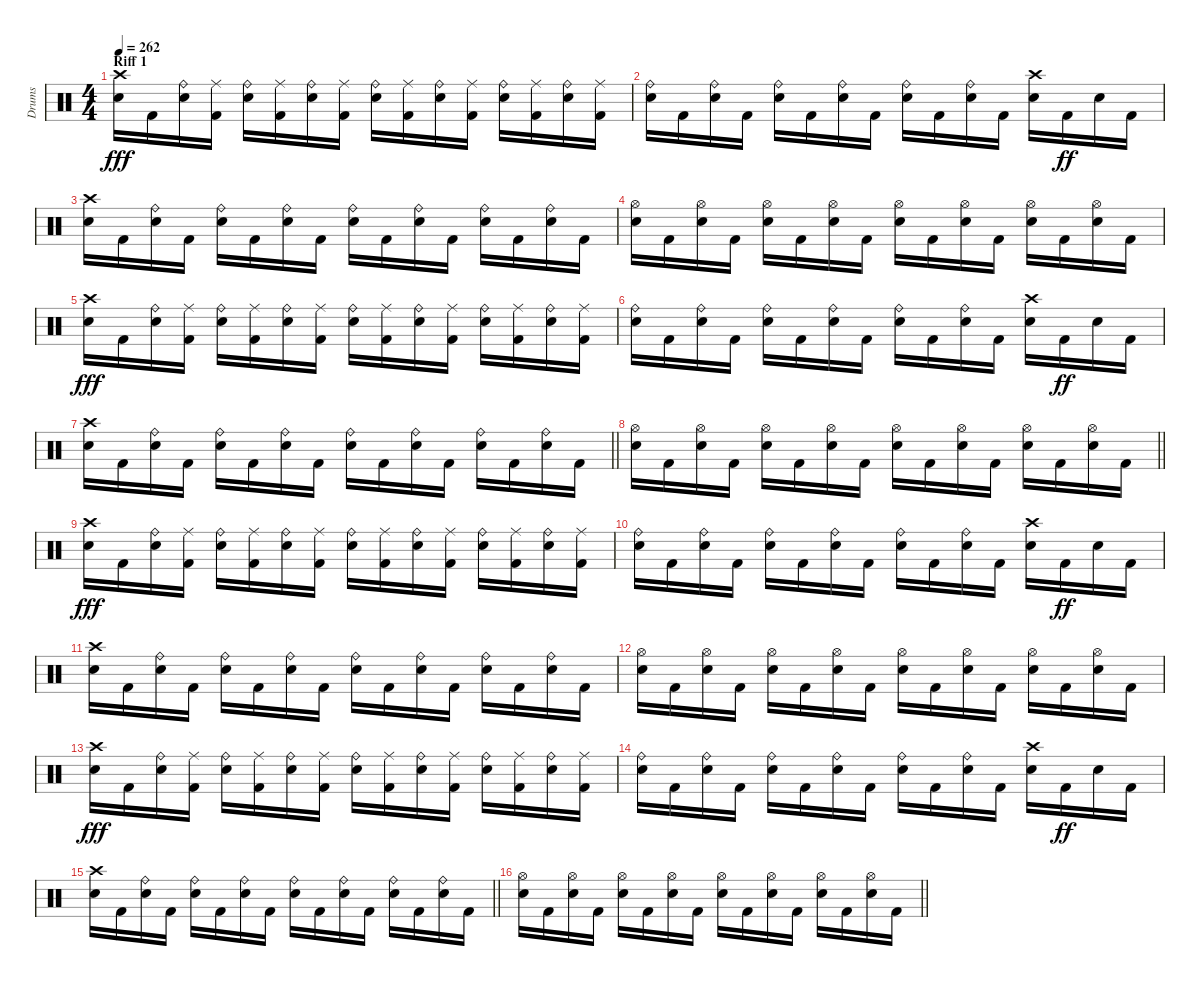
\track ("Drums" "Drums") {instrument percussion}
\staff {score}
\articulation defaults
\ts (4 4)
\section ("" "Riff 1")
\tempo 262
\clef neutral
\ks c
("Crash high (hit)" "Snare (hit) 2").16{dy fff} "Kick (hit) 2".16 ("Snare (hit) 2" "Ride (bell)").16 ("Kick (hit) 2" "Ride (middle)").16 ("Snare (hit) 2" "Ride (bell)").16 ("Kick (hit) 2" "Ride (middle)").16 ("Snare (hit) 2" "Ride (bell)").16 ("Kick (hit) 2" "Ride (middle)").16 ("Snare (hit) 2" "Ride (bell)").16 ("Kick (hit) 2" "Ride (middle)").16 ("Snare (hit) 2" "Ride (bell)").16 ("Kick (hit) 2" "Ride (middle)").16 ("Snare (hit) 2" "Ride (bell)").16 ("Kick (hit) 2" "Ride (middle)").16 ("Snare (hit) 2" "Ride (bell)").16 ("Kick (hit) 2" "Ride (middle)").16 |
("Snare (hit) 2" "Ride (bell)").16 "Kick (hit) 2".16 ("Snare (hit) 2" "Ride (bell)").16 "Kick (hit) 2".16 ("Snare (hit) 2" "Ride (bell)").16 "Kick (hit) 2".16 ("Snare (hit) 2" "Ride (bell)").16 "Kick (hit) 2".16 ("Snare (hit) 2" "Ride (bell)").16 "Kick (hit) 2".16 ("Snare (hit) 2" "Ride (bell)").16 "Kick (hit) 2".16 ("Crash high (hit)" "Snare (hit) 2").16 "Kick (hit) 2".16{dy ff} "Snare (hit) 2".16 "Kick (hit) 2".16 |
("Crash high (hit)" "Snare (hit) 2").16 "Kick (hit) 2".16 ("Snare (hit) 2" "Ride (bell)").16 "Kick (hit) 2".16 ("Snare (hit) 2" "Ride (bell)").16 "Kick (hit) 2".16 ("Snare (hit) 2" "Ride (bell)").16 "Kick (hit) 2".16 ("Snare (hit) 2" "Ride (bell)").16 "Kick (hit) 2".16 ("Snare (hit) 2" "Ride (bell)").16 "Kick (hit) 2".16 ("Snare (hit) 2" "Ride (bell)").16 "Kick (hit) 2".16 ("Snare (hit) 2" "Ride (bell)").16 "Kick (hit) 2".16 |
("Hi-Hat (open)" "Snare (hit) 2").16 "Kick (hit) 2".16 ("Hi-Hat (open)" "Snare (hit) 2").16 "Kick (hit) 2".16 ("Hi-Hat (open)" "Snare (hit) 2").16 "Kick (hit) 2".16 ("Hi-Hat (open)" "Snare (hit) 2").16 "Kick (hit) 2".16 ("Hi-Hat (open)" "Snare (hit) 2").16 "Kick (hit) 2".16 ("Hi-Hat (open)" "Snare (hit) 2").16 "Kick (hit) 2".16 ("Hi-Hat (open)" "Snare (hit) 2").16 "Kick (hit) 2".16 ("Hi-Hat (open)" "Snare (hit) 2").16 "Kick (hit) 2".16 |
("Crash high (hit)" "Snare (hit) 2").16{dy fff} "Kick (hit) 2".16 ("Snare (hit) 2" "Ride (bell)").16 ("Kick (hit) 2" "Ride (middle)").16 ("Snare (hit) 2" "Ride (bell)").16 ("Kick (hit) 2" "Ride (middle)").16 ("Snare (hit) 2" "Ride (bell)").16 ("Kick (hit) 2" "Ride (middle)").16 ("Snare (hit) 2" "Ride (bell)").16 ("Kick (hit) 2" "Ride (middle)").16 ("Snare (hit) 2" "Ride (bell)").16 ("Kick (hit) 2" "Ride (middle)").16 ("Snare (hit) 2" "Ride (bell)").16 ("Kick (hit) 2" "Ride (middle)").16 ("Snare (hit) 2" "Ride (bell)").16 ("Kick (hit) 2" "Ride (middle)").16 |
("Snare (hit) 2" "Ride (bell)").16 "Kick (hit) 2".16 ("Snare (hit) 2" "Ride (bell)").16 "Kick (hit) 2".16 ("Snare (hit) 2" "Ride (bell)").16 "Kick (hit) 2".16 ("Snare (hit) 2" "Ride (bell)").16 "Kick (hit) 2".16 ("Snare (hit) 2" "Ride (bell)").16 "Kick (hit) 2".16 ("Snare (hit) 2" "Ride (bell)").16 "Kick (hit) 2".16 ("Crash high (hit)" "Snare (hit) 2").16 "Kick (hit) 2".16{dy ff} "Snare (hit) 2".16 "Kick (hit) 2".16 |
\barLineRight lightlight
("Crash high (hit)" "Snare (hit) 2").16 "Kick (hit) 2".16 ("Snare (hit) 2" "Ride (bell)").16 "Kick (hit) 2".16 ("Snare (hit) 2" "Ride (bell)").16 "Kick (hit) 2".16 ("Snare (hit) 2" "Ride (bell)").16 "Kick (hit) 2".16 ("Snare (hit) 2" "Ride (bell)").16 "Kick (hit) 2".16 ("Snare (hit) 2" "Ride (bell)").16 "Kick (hit) 2".16 ("Snare (hit) 2" "Ride (bell)").16 "Kick (hit) 2".16 ("Snare (hit) 2" "Ride (bell)").16 "Kick (hit) 2".16 |
\barLineRight lightlight
("Hi-Hat (open)" "Snare (hit) 2").16 "Kick (hit) 2".16 ("Hi-Hat (open)" "Snare (hit) 2").16 "Kick (hit) 2".16 ("Hi-Hat (open)" "Snare (hit) 2").16 "Kick (hit) 2".16 ("Hi-Hat (open)" "Snare (hit) 2").16 "Kick (hit) 2".16 ("Hi-Hat (open)" "Snare (hit) 2").16 "Kick (hit) 2".16 ("Hi-Hat (open)" "Snare (hit) 2").16 "Kick (hit) 2".16 ("Hi-Hat (open)" "Snare (hit) 2").16 "Kick (hit) 2".16 ("Hi-Hat (open)" "Snare (hit) 2").16 "Kick (hit) 2".16 |
("Crash high (hit)" "Snare (hit) 2").16{dy fff} "Kick (hit) 2".16 ("Snare (hit) 2" "Ride (bell)").16 ("Kick (hit) 2" "Ride (middle)").16 ("Snare (hit) 2" "Ride (bell)").16 ("Kick (hit) 2" "Ride (middle)").16 ("Snare (hit) 2" "Ride (bell)").16 ("Kick (hit) 2" "Ride (middle)").16 ("Snare (hit) 2" "Ride (bell)").16 ("Kick (hit) 2" "Ride (middle)").16 ("Snare (hit) 2" "Ride (bell)").16 ("Kick (hit) 2" "Ride (middle)").16 ("Snare (hit) 2" "Ride (bell)").16 ("Kick (hit) 2" "Ride (middle)").16 ("Snare (hit) 2" "Ride (bell)").16 ("Kick (hit) 2" "Ride (middle)").16 |
("Snare (hit) 2" "Ride (bell)").16 "Kick (hit) 2".16 ("Snare (hit) 2" "Ride (bell)").16 "Kick (hit) 2".16 ("Snare (hit) 2" "Ride (bell)").16 "Kick (hit) 2".16 ("Snare (hit) 2" "Ride (bell)").16 "Kick (hit) 2".16 ("Snare (hit) 2" "Ride (bell)").16 "Kick (hit) 2".16 ("Snare (hit) 2" "Ride (bell)").16 "Kick (hit) 2".16 ("Crash high (hit)" "Snare (hit) 2").16 "Kick (hit) 2".16{dy ff} "Snare (hit) 2".16 "Kick (hit) 2".16 |
("Crash high (hit)" "Snare (hit) 2").16 "Kick (hit) 2".16 ("Snare (hit) 2" "Ride (bell)").16 "Kick (hit) 2".16 ("Snare (hit) 2" "Ride (bell)").16 "Kick (hit) 2".16 ("Snare (hit) 2" "Ride (bell)").16 "Kick (hit) 2".16 ("Snare (hit) 2" "Ride (bell)").16 "Kick (hit) 2".16 ("Snare (hit) 2" "Ride (bell)").16 "Kick (hit) 2".16 ("Snare (hit) 2" "Ride (bell)").16 "Kick (hit) 2".16 ("Snare (hit) 2" "Ride (bell)").16 "Kick (hit) 2".16 |
("Hi-Hat (open)" "Snare (hit) 2").16 "Kick (hit) 2".16 ("Hi-Hat (open)" "Snare (hit) 2").16 "Kick (hit) 2".16 ("Hi-Hat (open)" "Snare (hit) 2").16 "Kick (hit) 2".16 ("Hi-Hat (open)" "Snare (hit) 2").16 "Kick (hit) 2".16 ("Hi-Hat (open)" "Snare (hit) 2").16 "Kick (hit) 2".16 ("Hi-Hat (open)" "Snare (hit) 2").16 "Kick (hit) 2".16 ("Hi-Hat (open)" "Snare (hit) 2").16 "Kick (hit) 2".16 ("Hi-Hat (open)" "Snare (hit) 2").16 "Kick (hit) 2".16 |
("Crash high (hit)" "Snare (hit) 2").16{dy fff} "Kick (hit) 2".16 ("Snare (hit) 2" "Ride (bell)").16 ("Kick (hit) 2" "Ride (middle)").16 ("Snare (hit) 2" "Ride (bell)").16 ("Kick (hit) 2" "Ride (middle)").16 ("Snare (hit) 2" "Ride (bell)").16 ("Kick (hit) 2" "Ride (middle)").16 ("Snare (hit) 2" "Ride (bell)").16 ("Kick (hit) 2" "Ride (middle)").16 ("Snare (hit) 2" "Ride (bell)").16 ("Kick (hit) 2" "Ride (middle)").16 ("Snare (hit) 2" "Ride (bell)").16 ("Kick (hit) 2" "Ride (middle)").16 ("Snare (hit) 2" "Ride (bell)").16 ("Kick (hit) 2" "Ride (middle)").16 |
("Snare (hit) 2" "Ride (bell)").16 "Kick (hit) 2".16 ("Snare (hit) 2" "Ride (bell)").16 "Kick (hit) 2".16 ("Snare (hit) 2" "Ride (bell)").16 "Kick (hit) 2".16 ("Snare (hit) 2" "Ride (bell)").16 "Kick (hit) 2".16 ("Snare (hit) 2" "Ride (bell)").16 "Kick (hit) 2".16 ("Snare (hit) 2" "Ride (bell)").16 "Kick (hit) 2".16 ("Crash high (hit)" "Snare (hit) 2").16 "Kick (hit) 2".16{dy ff} "Snare (hit) 2".16 "Kick (hit) 2".16 |
\barLineRight lightlight
("Crash high (hit)" "Snare (hit) 2").16 "Kick (hit) 2".16 ("Snare (hit) 2" "Ride (bell)").16 "Kick (hit) 2".16 ("Snare (hit) 2" "Ride (bell)").16 "Kick (hit) 2".16 ("Snare (hit) 2" "Ride (bell)").16 "Kick (hit) 2".16 ("Snare (hit) 2" "Ride (bell)").16 "Kick (hit) 2".16 ("Snare (hit) 2" "Ride (bell)").16 "Kick (hit) 2".16 ("Snare (hit) 2" "Ride (bell)").16 "Kick (hit) 2".16 ("Snare (hit) 2" "Ride (bell)").16 "Kick (hit) 2".16 |
\barLineRight lightlight
("Hi-Hat (open)" "Snare (hit) 2").16 "Kick (hit) 2".16 ("Hi-Hat (open)" "Snare (hit) 2").16 "Kick (hit) 2".16 ("Hi-Hat (open)" "Snare (hit) 2").16 "Kick (hit) 2".16 ("Hi-Hat (open)" "Snare (hit) 2").16 "Kick (hit) 2".16 ("Hi-Hat (open)" "Snare (hit) 2").16 "Kick (hit) 2".16 ("Hi-Hat (open)" "Snare (hit) 2").16 "Kick (hit) 2".16 ("Hi-Hat (open)" "Snare (hit) 2").16 "Kick (hit) 2".16 ("Hi-Hat (open)" "Snare (hit) 2").16 "Kick (hit) 2".16
